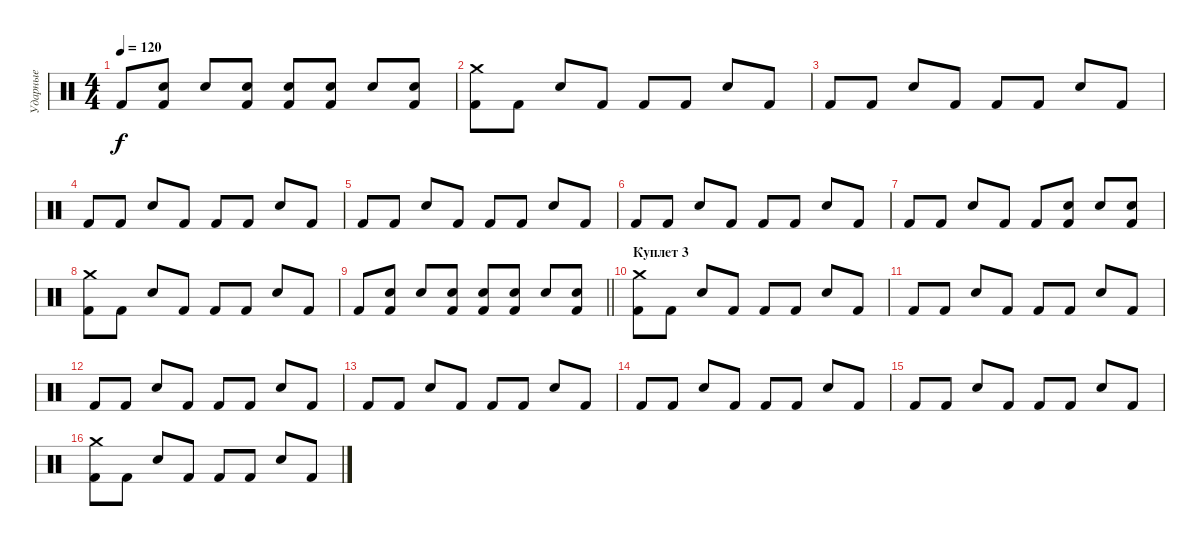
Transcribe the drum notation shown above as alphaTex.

\track ("Ударные" "Ударные") {instrument percussion}
\staff {score}
\articulation defaults
\ts (4 4)
\tempo 120
\clef neutral
\ks c "Kick (hit) 2".8{dy f}
("Kick (hit) 2" "Snare (hit) 2").8 "Snare (hit) 2".8 ("Kick (hit) 2" "Snare (hit) 2").8 ("Kick (hit) 2" "Snare (hit) 2").8 ("Kick (hit) 2" "Snare (hit) 2").8 "Snare (hit) 2".8 ("Kick (hit) 2" "Snare (hit) 2").8 |
("Kick (hit) 2" "Crash medium (hit)").8 "Kick (hit) 2".8 "Snare (hit) 2".8 "Kick (hit) 2".8 "Kick (hit) 2".8 "Kick (hit) 2".8 "Snare (hit) 2".8 "Kick (hit) 2".8 |
"Kick (hit) 2".8 "Kick (hit) 2".8 "Snare (hit) 2".8 "Kick (hit) 2".8 "Kick (hit) 2".8 "Kick (hit) 2".8 "Snare (hit) 2".8 "Kick (hit) 2".8 |
"Kick (hit) 2".8 "Kick (hit) 2".8 "Snare (hit) 2".8 "Kick (hit) 2".8 "Kick (hit) 2".8 "Kick (hit) 2".8 "Snare (hit) 2".8 "Kick (hit) 2".8 |
"Kick (hit) 2".8 "Kick (hit) 2".8 "Snare (hit) 2".8 "Kick (hit) 2".8 "Kick (hit) 2".8 "Kick (hit) 2".8 "Snare (hit) 2".8 "Kick (hit) 2".8 |
"Kick (hit) 2".8 "Kick (hit) 2".8 "Snare (hit) 2".8 "Kick (hit) 2".8 "Kick (hit) 2".8 "Kick (hit) 2".8 "Snare (hit) 2".8 "Kick (hit) 2".8 |
"Kick (hit) 2".8 "Kick (hit) 2".8 "Snare (hit) 2".8 "Kick (hit) 2".8 "Kick (hit) 2".8 ("Kick (hit) 2" "Snare (hit) 2").8 "Snare (hit) 2".8 ("Kick (hit) 2" "Snare (hit) 2").8 |
("Kick (hit) 2" "Crash medium (hit)").8 "Kick (hit) 2".8 "Snare (hit) 2".8 "Kick (hit) 2".8 "Kick (hit) 2".8 "Kick (hit) 2".8 "Snare (hit) 2".8 "Kick (hit) 2".8 |
\barLineRight lightlight "Kick (hit) 2".8
("Kick (hit) 2" "Snare (hit) 2").8 "Snare (hit) 2".8 ("Kick (hit) 2" "Snare (hit) 2").8 ("Kick (hit) 2" "Snare (hit) 2").8 ("Kick (hit) 2" "Snare (hit) 2").8 "Snare (hit) 2".8 ("Kick (hit) 2" "Snare (hit) 2").8 |
\section ("" "Куплет 3")
("Kick (hit) 2" "Crash medium (hit)").8 "Kick (hit) 2".8 "Snare (hit) 2".8 "Kick (hit) 2".8 "Kick (hit) 2".8 "Kick (hit) 2".8 "Snare (hit) 2".8 "Kick (hit) 2".8 |
"Kick (hit) 2".8 "Kick (hit) 2".8 "Snare (hit) 2".8 "Kick (hit) 2".8 "Kick (hit) 2".8 "Kick (hit) 2".8 "Snare (hit) 2".8 "Kick (hit) 2".8 |
"Kick (hit) 2".8 "Kick (hit) 2".8 "Snare (hit) 2".8 "Kick (hit) 2".8 "Kick (hit) 2".8 "Kick (hit) 2".8 "Snare (hit) 2".8 "Kick (hit) 2".8 |
"Kick (hit) 2".8 "Kick (hit) 2".8 "Snare (hit) 2".8 "Kick (hit) 2".8 "Kick (hit) 2".8 "Kick (hit) 2".8 "Snare (hit) 2".8 "Kick (hit) 2".8 |
"Kick (hit) 2".8 "Kick (hit) 2".8 "Snare (hit) 2".8 "Kick (hit) 2".8 "Kick (hit) 2".8 "Kick (hit) 2".8 "Snare (hit) 2".8 "Kick (hit) 2".8 |
"Kick (hit) 2".8 "Kick (hit) 2".8 "Snare (hit) 2".8 "Kick (hit) 2".8 "Kick (hit) 2".8 "Kick (hit) 2".8 "Snare (hit) 2".8 "Kick (hit) 2".8 |
("Kick (hit) 2" "Crash medium (hit)").8 "Kick (hit) 2".8 "Snare (hit) 2".8 "Kick (hit) 2".8 "Kick (hit) 2".8 "Kick (hit) 2".8 "Snare (hit) 2".8 "Kick (hit) 2".8
